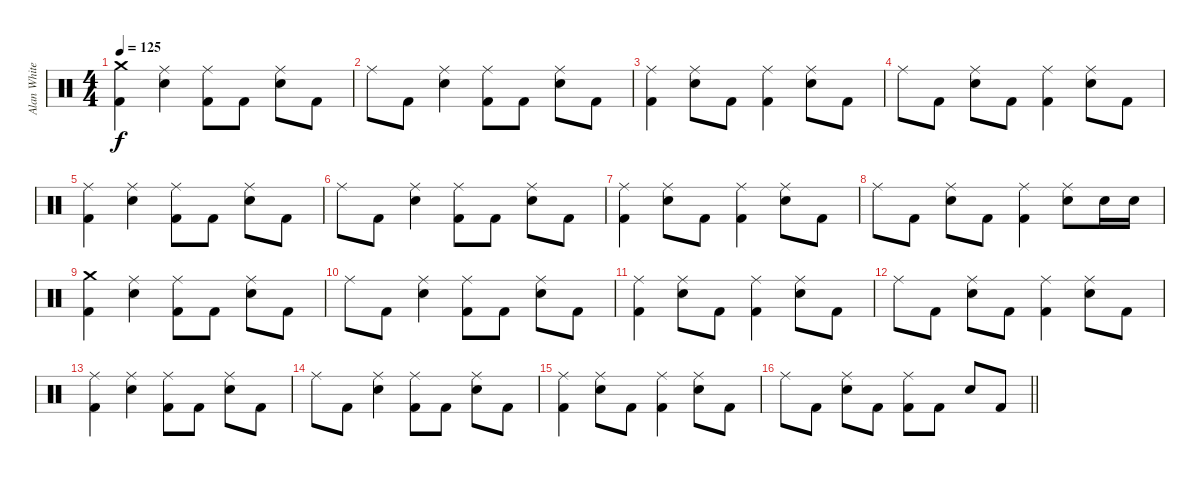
\track ("Alan White" "Alan White") {instrument percussion}
\staff {score}
\articulation defaults
\ts (4 4)
\tempo 125
\clef neutral
\ks c
("Crash medium (hit)" "Kick (hit) 2").4{dy f} ("Ride (middle)" "Snare (hit) 2").4 ("Ride (middle)" "Kick (hit) 2").8 "Kick (hit) 2".8 ("Ride (middle)" "Snare (hit) 2").8 "Kick (hit) 2".8 |
"Ride (middle)".8 "Kick (hit) 2".8 ("Ride (middle)" "Snare (hit) 2").4 ("Ride (middle)" "Kick (hit) 2").8 "Kick (hit) 2".8 ("Ride (middle)" "Snare (hit) 2").8 "Kick (hit) 2".8 |
("Ride (middle)" "Kick (hit) 2").4 ("Ride (middle)" "Snare (hit) 2").8 "Kick (hit) 2".8 ("Ride (middle)" "Kick (hit) 2").4 ("Ride (middle)" "Snare (hit) 2").8 "Kick (hit) 2".8 |
"Ride (middle)".8 "Kick (hit) 2".8 ("Ride (middle)" "Snare (hit) 2").8 "Kick (hit) 2".8 ("Ride (middle)" "Kick (hit) 2").4 ("Ride (middle)" "Snare (hit) 2").8 "Kick (hit) 2".8 |
("Ride (middle)" "Kick (hit) 2").4 ("Ride (middle)" "Snare (hit) 2").4 ("Ride (middle)" "Kick (hit) 2").8 "Kick (hit) 2".8 ("Ride (middle)" "Snare (hit) 2").8 "Kick (hit) 2".8 |
"Ride (middle)".8 "Kick (hit) 2".8 ("Ride (middle)" "Snare (hit) 2").4 ("Ride (middle)" "Kick (hit) 2").8 "Kick (hit) 2".8 ("Ride (middle)" "Snare (hit) 2").8 "Kick (hit) 2".8 |
("Ride (middle)" "Kick (hit) 2").4 ("Ride (middle)" "Snare (hit) 2").8 "Kick (hit) 2".8 ("Ride (middle)" "Kick (hit) 2").4 ("Ride (middle)" "Snare (hit) 2").8 "Kick (hit) 2".8 |
"Ride (middle)".8 "Kick (hit) 2".8 ("Ride (middle)" "Snare (hit) 2").8 "Kick (hit) 2".8 ("Ride (middle)" "Kick (hit) 2").4 ("Ride (middle)" "Snare (hit) 2").8 "Snare (hit) 2".16 "Snare (hit) 2".16 |
("Crash medium (hit)" "Kick (hit) 2").4 ("Ride (middle)" "Snare (hit) 2").4 ("Ride (middle)" "Kick (hit) 2").8 "Kick (hit) 2".8 ("Ride (middle)" "Snare (hit) 2").8 "Kick (hit) 2".8 |
"Ride (middle)".8 "Kick (hit) 2".8 ("Ride (middle)" "Snare (hit) 2").4 ("Ride (middle)" "Kick (hit) 2").8 "Kick (hit) 2".8 ("Ride (middle)" "Snare (hit) 2").8 "Kick (hit) 2".8 |
("Ride (middle)" "Kick (hit) 2").4 ("Ride (middle)" "Snare (hit) 2").8 "Kick (hit) 2".8 ("Ride (middle)" "Kick (hit) 2").4 ("Ride (middle)" "Snare (hit) 2").8 "Kick (hit) 2".8 |
"Ride (middle)".8 "Kick (hit) 2".8 ("Ride (middle)" "Snare (hit) 2").8 "Kick (hit) 2".8 ("Ride (middle)" "Kick (hit) 2").4 ("Ride (middle)" "Snare (hit) 2").8 "Kick (hit) 2".8 |
("Ride (middle)" "Kick (hit) 2").4 ("Ride (middle)" "Snare (hit) 2").4 ("Ride (middle)" "Kick (hit) 2").8 "Kick (hit) 2".8 ("Ride (middle)" "Snare (hit) 2").8 "Kick (hit) 2".8 |
"Ride (middle)".8 "Kick (hit) 2".8 ("Ride (middle)" "Snare (hit) 2").4 ("Ride (middle)" "Kick (hit) 2").8 "Kick (hit) 2".8 ("Ride (middle)" "Snare (hit) 2").8 "Kick (hit) 2".8 |
("Ride (middle)" "Kick (hit) 2").4 ("Ride (middle)" "Snare (hit) 2").8 "Kick (hit) 2".8 ("Ride (middle)" "Kick (hit) 2").4 ("Ride (middle)" "Snare (hit) 2").8 "Kick (hit) 2".8 |
\barLineRight lightlight "Ride (middle)".8 "Kick (hit) 2".8
("Ride (middle)" "Snare (hit) 2").8 "Kick (hit) 2".8 ("Ride (middle)" "Kick (hit) 2").8 "Kick (hit) 2".8 "Snare (hit) 2".8 "Kick (hit) 2".8
